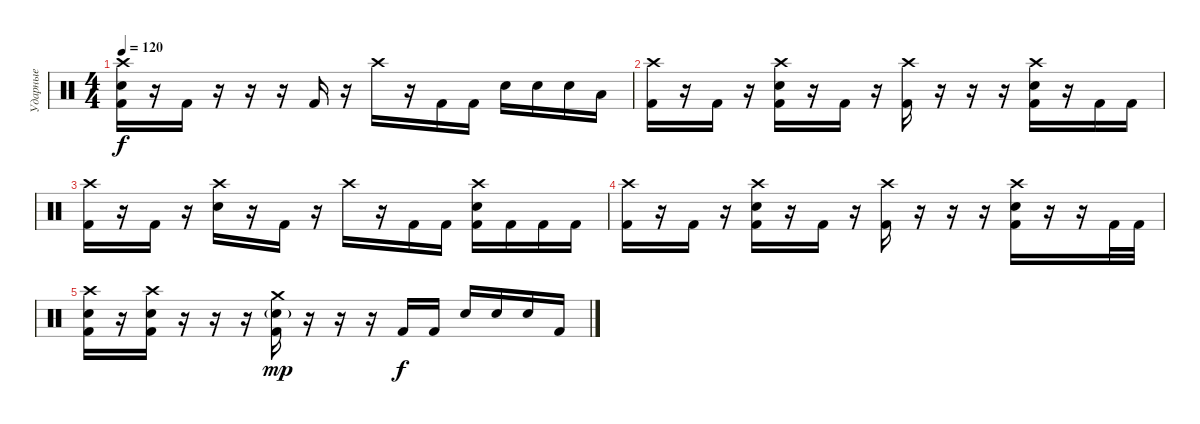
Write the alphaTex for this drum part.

\track ("Ударные" "Ударные") {instrument percussion}
\staff {score}
\articulation defaults
\ts (4 4)
\tempo 120
\clef neutral
\ks c
("Crash high (hit)" "Snare (hit) 2" "Kick (hit) 2").16{dy f} r.16 "Kick (hit) 2".16 r.16 r.16 r.16 "Kick (hit) 2".16 r.16 "Crash high (hit)".16 r.16 "Kick (hit) 2".16 "Kick (hit) 2".16 "Electric Snare (hit)".16 "Electric Snare (hit)".16 "Electric Snare (hit)".16 "Low Tom (hit)".16 |
("Crash high (hit)" "Kick (hit) 2").16 r.16 "Kick (hit) 2".16 r.16 ("Crash high (hit)" "Electric Snare (hit)" "Kick (hit) 2").16 r.16 "Kick (hit) 2".16 r.16 ("Crash high (hit)" "Kick (hit) 2").16 r.16 r.16 r.16 ("Crash high (hit)" "Electric Snare (hit)" "Kick (hit) 2").16 r.16 "Kick (hit) 2".16 "Kick (hit) 2".16 |
("Crash high (hit)" "Kick (hit) 2").16 r.16 "Kick (hit) 2".16 r.16 ("Crash high (hit)" "Electric Snare (hit)").16 r.16 "Kick (hit) 2".16 r.16 "Crash high (hit)".16 r.16 "Kick (hit) 2".16 "Kick (hit) 2".16 ("Crash high (hit)" "Electric Snare (hit)" "Kick (hit) 2").16 "Kick (hit) 2".16 "Kick (hit) 2".16 "Kick (hit) 2".16 |
("Crash high (hit)" "Kick (hit) 2").16 r.16 "Kick (hit) 2".16 r.16 ("Crash high (hit)" "Electric Snare (hit)" "Kick (hit) 2").16 r.16 "Kick (hit) 2".16 r.16 ("Crash high (hit)" "Kick (hit) 2").16 r.16 r.16 r.16 ("Crash high (hit)" "Electric Snare (hit)" "Kick (hit) 2").16 r.16 r.16 "Kick (hit) 2".32 "Kick (hit) 2".32 |
("Crash high (hit)" "Snare (hit) 2" "Kick (hit) 2").16 r.16 ("Crash high (hit)" "Snare (hit) 2" "Kick (hit) 2").16 r.16 r.16 r.16 ("Crash medium (hit)" "Snare (hit) 2"{g} "Kick (hit) 2").16{dy mp} r.16 r.16 r.16 "Kick (hit) 2".16{dy f} "Kick (hit) 2".16 "Electric Snare (hit)".16 "Electric Snare (hit)".16 "Electric Snare (hit)".16 "Kick (hit) 2".16
